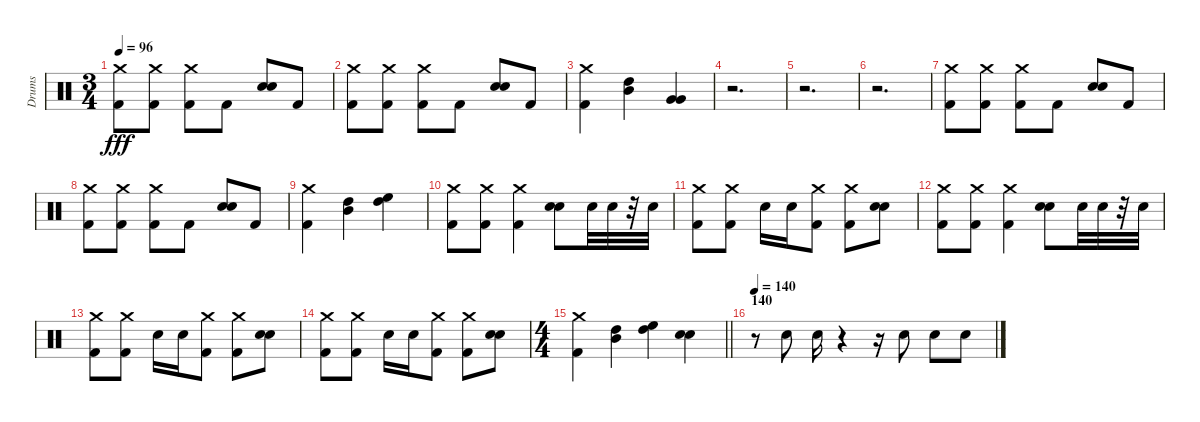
\track ("Drums" "Drums") {instrument percussion}
\staff {score}
\articulation defaults
\ts (3 4)
\tempo 96
\clef neutral
\ks c
("Kick (hit) 2" "Crash medium (hit)").8{dy fff} ("Kick (hit) 2" "Crash medium (hit)").8 ("Crash medium (hit)" "Kick (hit) 2").8 "Kick (hit) 2".8 ("Snare (hit) 2" "Snare (hit) 2").8{bd 120} "Kick (hit) 2".8 |
("Kick (hit) 2" "Crash medium (hit)").8 ("Kick (hit) 2" "Crash medium (hit)").8 ("Crash medium (hit)" "Kick (hit) 2").8 "Kick (hit) 2".8 ("Snare (hit) 2" "Snare (hit) 2").8{bd 120} "Kick (hit) 2".8 |
("Kick (hit) 2" "Crash medium (hit)").4 ("High Tom (hit)" "Mid Tom (hit)").4 ("Very Low Tom (hit)" "Very Low Tom (hit)").4 |
r.2{d} |
r.2{d} |
r.2{d} |
("Kick (hit) 2" "Crash medium (hit)").8 ("Kick (hit) 2" "Crash medium (hit)").8 ("Crash medium (hit)" "Kick (hit) 2").8 "Kick (hit) 2".8 ("Snare (hit) 2" "Snare (hit) 2").8{bd 120} "Kick (hit) 2".8 |
("Kick (hit) 2" "Crash medium (hit)").8 ("Kick (hit) 2" "Crash medium (hit)").8 ("Crash medium (hit)" "Kick (hit) 2").8 "Kick (hit) 2".8 ("Snare (hit) 2" "Snare (hit) 2").8{bd 120} "Kick (hit) 2".8 |
("Kick (hit) 2" "Crash medium (hit)").4 ("High Tom (hit)" "Mid Tom (hit)").4 ("High Floor Tom (hit)" "High Tom (hit)").4 |
("Kick (hit) 2" "Crash medium (hit)").8 ("Kick (hit) 2" "Crash medium (hit)").8 ("Kick (hit) 2" "Crash medium (hit)").4 ("Snare (hit) 2" "Snare (hit) 2").8{bd 120} "Snare (hit) 2".32 "Snare (hit) 2".32 r.32 "Snare (hit) 2".32 |
("Kick (hit) 2" "Crash medium (hit)").8 ("Kick (hit) 2" "Crash medium (hit)").8 "Snare (hit) 2".16 "Snare (hit) 2".16 ("Crash medium (hit)" "Kick (hit) 2").8 ("Crash medium (hit)" "Kick (hit) 2").8 ("Snare (hit) 2" "Snare (hit) 2").8{bd 120} |
("Kick (hit) 2" "Crash medium (hit)").8 ("Kick (hit) 2" "Crash medium (hit)").8 ("Kick (hit) 2" "Crash medium (hit)").4 ("Snare (hit) 2" "Snare (hit) 2").8{bd 120} "Snare (hit) 2".32 "Snare (hit) 2".32 r.32 "Snare (hit) 2".32 |
("Kick (hit) 2" "Crash medium (hit)").8 ("Kick (hit) 2" "Crash medium (hit)").8 "Snare (hit) 2".16 "Snare (hit) 2".16 ("Crash medium (hit)" "Kick (hit) 2").8 ("Crash medium (hit)" "Kick (hit) 2").8 ("Snare (hit) 2" "Snare (hit) 2").8{bd 120} |
("Kick (hit) 2" "Crash medium (hit)").8 ("Kick (hit) 2" "Crash medium (hit)").8 "Snare (hit) 2".16 "Snare (hit) 2".16 ("Crash medium (hit)" "Kick (hit) 2").8 ("Crash medium (hit)" "Kick (hit) 2").8 ("Snare (hit) 2" "Snare (hit) 2").8{bd 120} |
\ts (4 4)
\barLineRight lightlight
("Kick (hit) 2" "Crash medium (hit)").4 ("Mid Tom (hit)" "High Tom (hit)").4 ("High Floor Tom (hit)" "High Tom (hit)").4 ("Snare (hit) 2" "Snare (hit) 2").4{bd 120} |
\section ("" "140")
\tempo 140
r.8 "Snare (hit) 2".8 "Snare (hit) 2".16 r.4 r.16 "Snare (hit) 2".8 "Snare (hit) 2".8 "Snare (hit) 2".8
